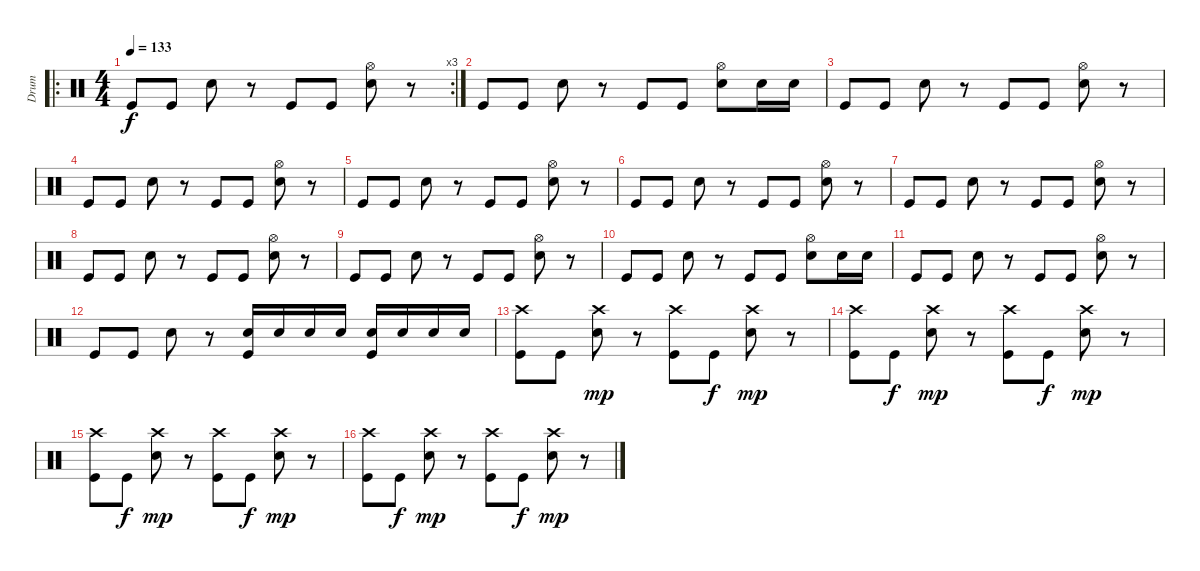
\track ("Drum" "Drum") {instrument percussion}
\staff {score}
\articulation defaults
\ro
\rc 3
\ts (4 4)
\tempo 133
\clef neutral
\ks c "Kick (hit)".8{dy f} "Kick (hit)".8 "Snare (hit) 2".8
r.8 "Kick (hit)".8 "Kick (hit)".8 ("Hi-Hat (open)" "Snare (hit) 2").8 r.8 |
"Kick (hit)".8 "Kick (hit)".8 "Snare (hit) 2".8 r.8 "Kick (hit)".8 "Kick (hit)".8 ("Hi-Hat (open)" "Snare (hit) 2").8 "Snare (hit) 2".16 "Snare (hit) 2".16 |
"Kick (hit)".8 "Kick (hit)".8 "Snare (hit) 2".8 r.8 "Kick (hit)".8 "Kick (hit)".8 ("Hi-Hat (open)" "Snare (hit) 2").8 r.8 |
"Kick (hit)".8 "Kick (hit)".8 "Snare (hit) 2".8 r.8 "Kick (hit)".8 "Kick (hit)".8 ("Hi-Hat (open)" "Snare (hit) 2").8 r.8 |
"Kick (hit)".8 "Kick (hit)".8 "Snare (hit) 2".8 r.8 "Kick (hit)".8 "Kick (hit)".8 ("Hi-Hat (open)" "Snare (hit) 2").8 r.8 |
"Kick (hit)".8 "Kick (hit)".8 "Snare (hit) 2".8 r.8 "Kick (hit)".8 "Kick (hit)".8 ("Hi-Hat (open)" "Snare (hit) 2").8 r.8 |
"Kick (hit)".8 "Kick (hit)".8 "Snare (hit) 2".8 r.8 "Kick (hit)".8 "Kick (hit)".8 ("Hi-Hat (open)" "Snare (hit) 2").8 r.8 |
"Kick (hit)".8 "Kick (hit)".8 "Snare (hit) 2".8 r.8 "Kick (hit)".8 "Kick (hit)".8 ("Hi-Hat (open)" "Snare (hit) 2").8 r.8 |
"Kick (hit)".8 "Kick (hit)".8 "Snare (hit) 2".8 r.8 "Kick (hit)".8 "Kick (hit)".8 ("Hi-Hat (open)" "Snare (hit) 2").8 r.8 |
"Kick (hit)".8 "Kick (hit)".8 "Snare (hit) 2".8 r.8 "Kick (hit)".8 "Kick (hit)".8 ("Hi-Hat (open)" "Snare (hit) 2").8 "Snare (hit) 2".16 "Snare (hit) 2".16 |
"Kick (hit)".8 "Kick (hit)".8 "Snare (hit) 2".8 r.8 "Kick (hit)".8 "Kick (hit)".8 ("Hi-Hat (open)" "Snare (hit) 2").8 r.8 |
"Kick (hit)".8 "Kick (hit)".8 "Snare (hit) 2".8 r.8 ("Snare (hit) 2" "Kick (hit)").16 "Snare (hit) 2".16 "Snare (hit) 2".16 "Snare (hit) 2".16 ("Snare (hit) 2" "Kick (hit)").16 "Snare (hit) 2".16 "Snare (hit) 2".16 "Snare (hit) 2".16 |
("Crash high (hit)" "Kick (hit)").8 "Kick (hit)".8 ("Crash high (hit)" "Snare (hit) 2").8{dy mp} r.8 ("Crash high (hit)" "Kick (hit)").8 "Kick (hit)".8{dy f} ("Crash high (hit)" "Snare (hit) 2").8{dy mp} r.8 |
("Crash high (hit)" "Kick (hit)").8 "Kick (hit)".8{dy f} ("Crash high (hit)" "Snare (hit) 2").8{dy mp} r.8 ("Crash high (hit)" "Kick (hit)").8 "Kick (hit)".8{dy f} ("Crash high (hit)" "Snare (hit) 2").8{dy mp} r.8 |
("Crash high (hit)" "Kick (hit)").8 "Kick (hit)".8{dy f} ("Crash high (hit)" "Snare (hit) 2").8{dy mp} r.8 ("Crash high (hit)" "Kick (hit)").8 "Kick (hit)".8{dy f} ("Crash high (hit)" "Snare (hit) 2").8{dy mp} r.8 |
("Crash high (hit)" "Kick (hit)").8 "Kick (hit)".8{dy f} ("Crash high (hit)" "Snare (hit) 2").8{dy mp} r.8 ("Crash high (hit)" "Kick (hit)").8 "Kick (hit)".8{dy f} ("Crash high (hit)" "Snare (hit) 2").8{dy mp} r.8
